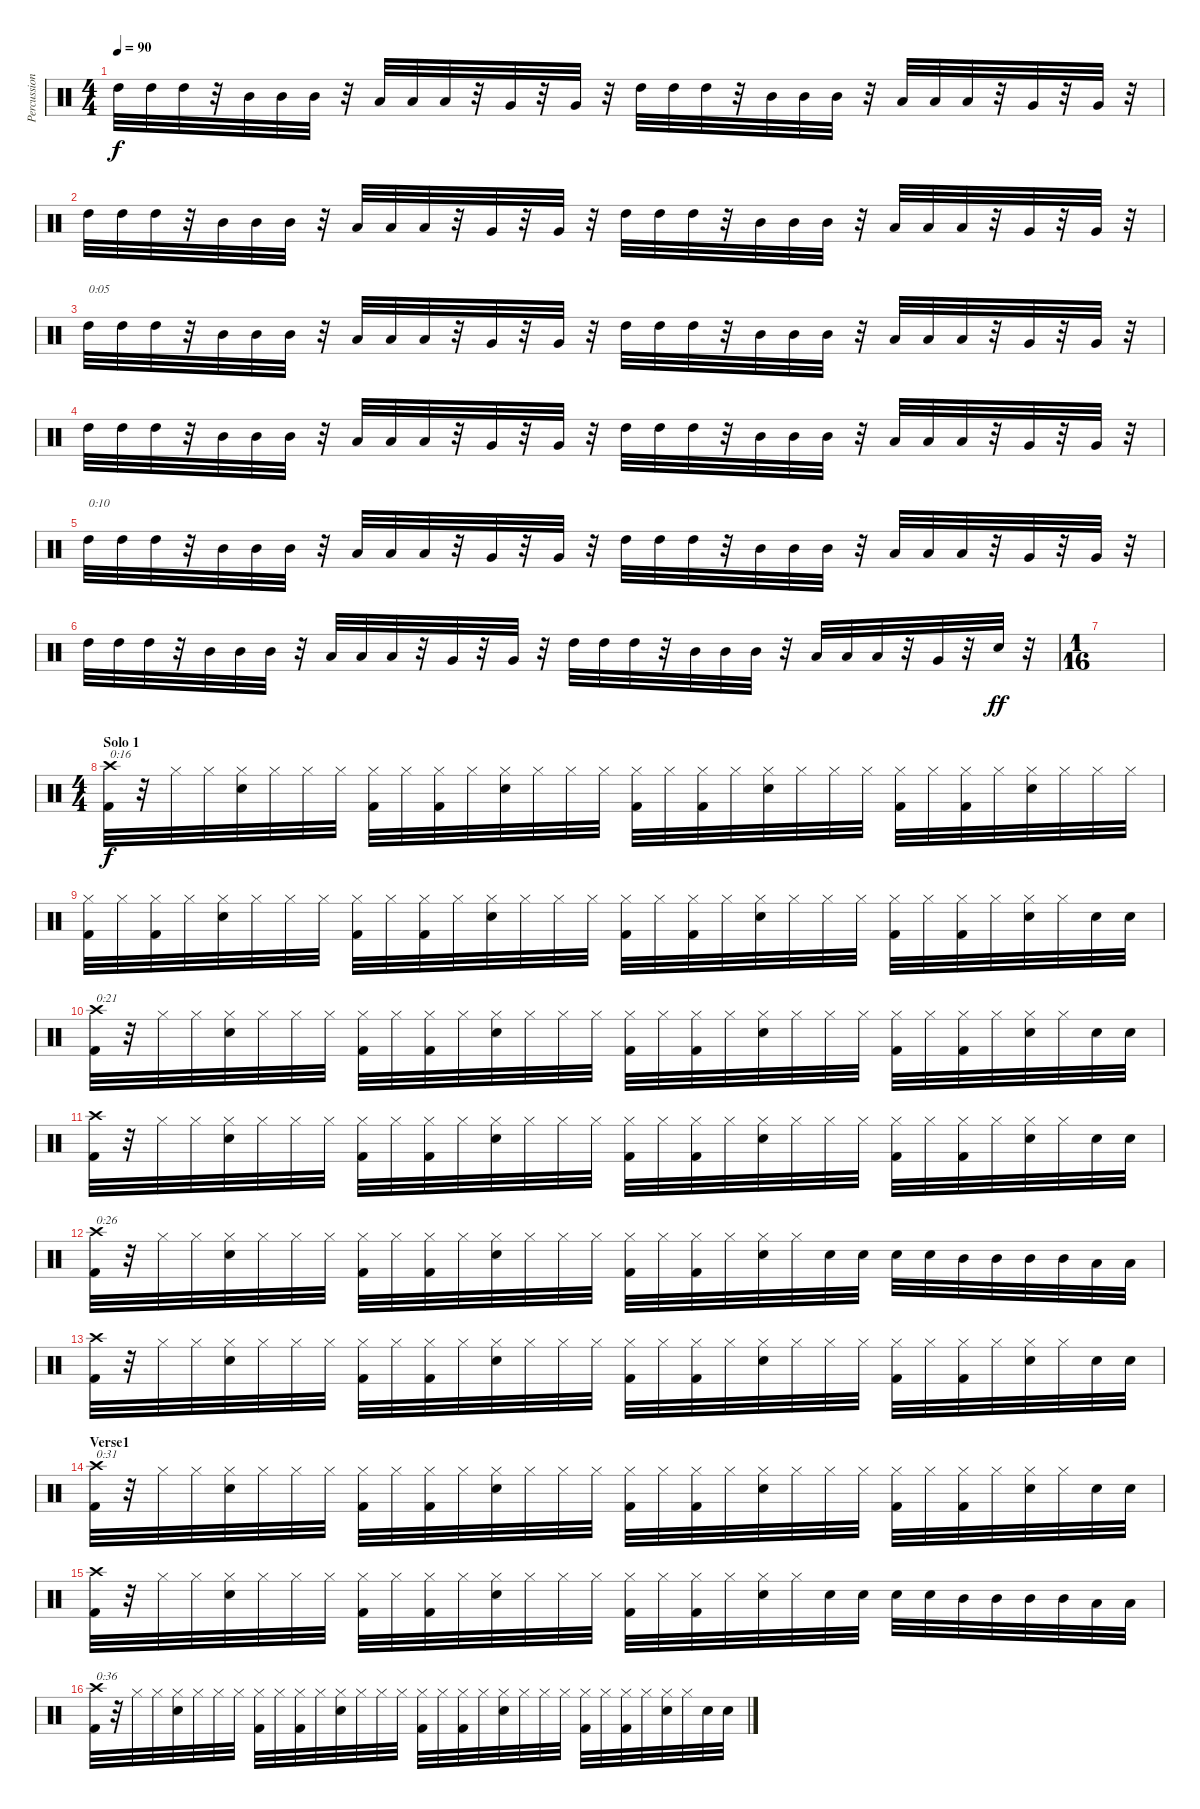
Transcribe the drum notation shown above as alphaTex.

\track ("Percussion" "Percussion") {instrument percussion}
\staff {score}
\articulation defaults
\ts (4 4)
\tempo 90
\clef neutral
\ks c "High Tom (hit)".32{dy f} "High Tom (hit)".32 "High Tom (hit)".32
r.32 "Mid Tom (hit)".32 "Mid Tom (hit)".32 "Mid Tom (hit)".32 r.32 "Low Tom (hit)".32 "Low Tom (hit)".32 "Low Tom (hit)".32 r.32 "Very Low Tom (hit)".32 r.32 "Very Low Tom (hit)".32 r.32 "High Tom (hit)".32 "High Tom (hit)".32 "High Tom (hit)".32 r.32 "Mid Tom (hit)".32 "Mid Tom (hit)".32 "Mid Tom (hit)".32 r.32 "Low Tom (hit)".32 "Low Tom (hit)".32 "Low Tom (hit)".32 r.32 "Very Low Tom (hit)".32 r.32 "Very Low Tom (hit)".32 r.32 |
"High Tom (hit)".32 "High Tom (hit)".32 "High Tom (hit)".32 r.32 "Mid Tom (hit)".32 "Mid Tom (hit)".32 "Mid Tom (hit)".32 r.32 "Low Tom (hit)".32 "Low Tom (hit)".32 "Low Tom (hit)".32 r.32 "Very Low Tom (hit)".32 r.32 "Very Low Tom (hit)".32 r.32 "High Tom (hit)".32 "High Tom (hit)".32 "High Tom (hit)".32 r.32 "Mid Tom (hit)".32 "Mid Tom (hit)".32 "Mid Tom (hit)".32 r.32 "Low Tom (hit)".32 "Low Tom (hit)".32 "Low Tom (hit)".32 r.32 "Very Low Tom (hit)".32 r.32 "Very Low Tom (hit)".32 r.32 |
"High Tom (hit)".32{txt "0:05"} "High Tom (hit)".32 "High Tom (hit)".32 r.32 "Mid Tom (hit)".32 "Mid Tom (hit)".32 "Mid Tom (hit)".32 r.32 "Low Tom (hit)".32 "Low Tom (hit)".32 "Low Tom (hit)".32 r.32 "Very Low Tom (hit)".32 r.32 "Very Low Tom (hit)".32 r.32 "High Tom (hit)".32 "High Tom (hit)".32 "High Tom (hit)".32 r.32 "Mid Tom (hit)".32 "Mid Tom (hit)".32 "Mid Tom (hit)".32 r.32 "Low Tom (hit)".32 "Low Tom (hit)".32 "Low Tom (hit)".32 r.32 "Very Low Tom (hit)".32 r.32 "Very Low Tom (hit)".32 r.32 |
"High Tom (hit)".32 "High Tom (hit)".32 "High Tom (hit)".32 r.32 "Mid Tom (hit)".32 "Mid Tom (hit)".32 "Mid Tom (hit)".32 r.32 "Low Tom (hit)".32 "Low Tom (hit)".32 "Low Tom (hit)".32 r.32 "Very Low Tom (hit)".32 r.32 "Very Low Tom (hit)".32 r.32 "High Tom (hit)".32 "High Tom (hit)".32 "High Tom (hit)".32 r.32 "Mid Tom (hit)".32 "Mid Tom (hit)".32 "Mid Tom (hit)".32 r.32 "Low Tom (hit)".32 "Low Tom (hit)".32 "Low Tom (hit)".32 r.32 "Very Low Tom (hit)".32 r.32 "Very Low Tom (hit)".32 r.32 |
"High Tom (hit)".32{txt "0:10"} "High Tom (hit)".32 "High Tom (hit)".32 r.32 "Mid Tom (hit)".32 "Mid Tom (hit)".32 "Mid Tom (hit)".32 r.32 "Low Tom (hit)".32 "Low Tom (hit)".32 "Low Tom (hit)".32 r.32 "Very Low Tom (hit)".32 r.32 "Very Low Tom (hit)".32 r.32 "High Tom (hit)".32 "High Tom (hit)".32 "High Tom (hit)".32 r.32 "Mid Tom (hit)".32 "Mid Tom (hit)".32 "Mid Tom (hit)".32 r.32 "Low Tom (hit)".32 "Low Tom (hit)".32 "Low Tom (hit)".32 r.32 "Very Low Tom (hit)".32 r.32 "Very Low Tom (hit)".32 r.32 |
"High Tom (hit)".32 "High Tom (hit)".32 "High Tom (hit)".32 r.32 "Mid Tom (hit)".32 "Mid Tom (hit)".32 "Mid Tom (hit)".32 r.32 "Low Tom (hit)".32 "Low Tom (hit)".32 "Low Tom (hit)".32 r.32 "Very Low Tom (hit)".32 r.32 "Very Low Tom (hit)".32 r.32 "High Tom (hit)".32 "High Tom (hit)".32 "High Tom (hit)".32 r.32 "Mid Tom (hit)".32 "Mid Tom (hit)".32 "Mid Tom (hit)".32 r.32 "Low Tom (hit)".32 "Low Tom (hit)".32 "Low Tom (hit)".32 r.32 "Very Low Tom (hit)".32 r.32 "Snare (hit) 2".32{dy ff} r.32 |
\ts (1 16)
|
\ts (4 4)
\section ("" "Solo 1")
("Crash high (hit)" "Kick (hit) 2").32{txt "0:16" dy f} r.32 "Hi-Hat (closed)".32 "Hi-Hat (closed)".32 ("Hi-Hat (closed)" "Snare (hit) 2").32 "Hi-Hat (closed)".32 "Hi-Hat (closed)".32 "Hi-Hat (closed)".32 ("Hi-Hat (closed)" "Kick (hit) 2").32 "Hi-Hat (closed)".32 ("Hi-Hat (closed)" "Kick (hit) 2").32 "Hi-Hat (closed)".32 ("Hi-Hat (closed)" "Snare (hit) 2").32 "Hi-Hat (closed)".32 "Hi-Hat (closed)".32 "Hi-Hat (closed)".32 ("Hi-Hat (closed)" "Kick (hit) 2").32 "Hi-Hat (closed)".32 ("Hi-Hat (closed)" "Kick (hit) 2").32 "Hi-Hat (closed)".32 ("Hi-Hat (closed)" "Snare (hit) 2").32 "Hi-Hat (closed)".32 "Hi-Hat (closed)".32 "Hi-Hat (closed)".32 ("Hi-Hat (closed)" "Kick (hit) 2").32 "Hi-Hat (closed)".32 ("Hi-Hat (closed)" "Kick (hit) 2").32 "Hi-Hat (closed)".32 ("Hi-Hat (closed)" "Snare (hit) 2").32 "Hi-Hat (closed)".32 "Hi-Hat (closed)".32 "Hi-Hat (closed)".32 |
("Hi-Hat (closed)" "Kick (hit) 2").32 "Hi-Hat (closed)".32 ("Hi-Hat (closed)" "Kick (hit) 2").32 "Hi-Hat (closed)".32 ("Hi-Hat (closed)" "Snare (hit) 2").32 "Hi-Hat (closed)".32 "Hi-Hat (closed)".32 "Hi-Hat (closed)".32 ("Hi-Hat (closed)" "Kick (hit) 2").32 "Hi-Hat (closed)".32 ("Hi-Hat (closed)" "Kick (hit) 2").32 "Hi-Hat (closed)".32 ("Hi-Hat (closed)" "Snare (hit) 2").32 "Hi-Hat (closed)".32 "Hi-Hat (closed)".32 "Hi-Hat (closed)".32 ("Hi-Hat (closed)" "Kick (hit) 2").32 "Hi-Hat (closed)".32 ("Hi-Hat (closed)" "Kick (hit) 2").32 "Hi-Hat (closed)".32 ("Hi-Hat (closed)" "Snare (hit) 2").32 "Hi-Hat (closed)".32 "Hi-Hat (closed)".32 "Hi-Hat (closed)".32 ("Hi-Hat (closed)" "Kick (hit) 2").32 "Hi-Hat (closed)".32 ("Hi-Hat (closed)" "Kick (hit) 2").32 "Hi-Hat (closed)".32 ("Hi-Hat (closed)" "Snare (hit) 2").32 "Hi-Hat (closed)".32 "Snare (hit) 2".32 "Snare (hit) 2".32 |
("Crash high (hit)" "Kick (hit) 2").32{txt "0:21"} r.32 "Hi-Hat (closed)".32 "Hi-Hat (closed)".32 ("Hi-Hat (closed)" "Snare (hit) 2").32 "Hi-Hat (closed)".32 "Hi-Hat (closed)".32 "Hi-Hat (closed)".32 ("Hi-Hat (closed)" "Kick (hit) 2").32 "Hi-Hat (closed)".32 ("Hi-Hat (closed)" "Kick (hit) 2").32 "Hi-Hat (closed)".32 ("Hi-Hat (closed)" "Snare (hit) 2").32 "Hi-Hat (closed)".32 "Hi-Hat (closed)".32 "Hi-Hat (closed)".32 ("Hi-Hat (closed)" "Kick (hit) 2").32 "Hi-Hat (closed)".32 ("Hi-Hat (closed)" "Kick (hit) 2").32 "Hi-Hat (closed)".32 ("Hi-Hat (closed)" "Snare (hit) 2").32 "Hi-Hat (closed)".32 "Hi-Hat (closed)".32 "Hi-Hat (closed)".32 ("Hi-Hat (closed)" "Kick (hit) 2").32 "Hi-Hat (closed)".32 ("Hi-Hat (closed)" "Kick (hit) 2").32 "Hi-Hat (closed)".32 ("Hi-Hat (closed)" "Snare (hit) 2").32 "Hi-Hat (closed)".32 "Snare (hit) 2".32 "Snare (hit) 2".32 |
("Crash high (hit)" "Kick (hit) 2").32 r.32 "Hi-Hat (closed)".32 "Hi-Hat (closed)".32 ("Hi-Hat (closed)" "Snare (hit) 2").32 "Hi-Hat (closed)".32 "Hi-Hat (closed)".32 "Hi-Hat (closed)".32 ("Hi-Hat (closed)" "Kick (hit) 2").32 "Hi-Hat (closed)".32 ("Hi-Hat (closed)" "Kick (hit) 2").32 "Hi-Hat (closed)".32 ("Hi-Hat (closed)" "Snare (hit) 2").32 "Hi-Hat (closed)".32 "Hi-Hat (closed)".32 "Hi-Hat (closed)".32 ("Hi-Hat (closed)" "Kick (hit) 2").32 "Hi-Hat (closed)".32 ("Hi-Hat (closed)" "Kick (hit) 2").32 "Hi-Hat (closed)".32 ("Hi-Hat (closed)" "Snare (hit) 2").32 "Hi-Hat (closed)".32 "Hi-Hat (closed)".32 "Hi-Hat (closed)".32 ("Hi-Hat (closed)" "Kick (hit) 2").32 "Hi-Hat (closed)".32 ("Hi-Hat (closed)" "Kick (hit) 2").32 "Hi-Hat (closed)".32 ("Hi-Hat (closed)" "Snare (hit) 2").32 "Hi-Hat (closed)".32 "Snare (hit) 2".32 "Snare (hit) 2".32 |
("Crash high (hit)" "Kick (hit) 2").32{txt "0:26"} r.32 "Hi-Hat (closed)".32 "Hi-Hat (closed)".32 ("Hi-Hat (closed)" "Snare (hit) 2").32 "Hi-Hat (closed)".32 "Hi-Hat (closed)".32 "Hi-Hat (closed)".32 ("Hi-Hat (closed)" "Kick (hit) 2").32 "Hi-Hat (closed)".32 ("Hi-Hat (closed)" "Kick (hit) 2").32 "Hi-Hat (closed)".32 ("Hi-Hat (closed)" "Snare (hit) 2").32 "Hi-Hat (closed)".32 "Hi-Hat (closed)".32 "Hi-Hat (closed)".32 ("Hi-Hat (closed)" "Kick (hit) 2").32 "Hi-Hat (closed)".32 ("Hi-Hat (closed)" "Kick (hit) 2").32 "Hi-Hat (closed)".32 ("Hi-Hat (closed)" "Snare (hit) 2").32 "Hi-Hat (closed)".32 "Snare (hit) 2".32 "Snare (hit) 2".32 "Snare (hit) 2".32 "Snare (hit) 2".32 "Mid Tom (hit)".32 "Mid Tom (hit)".32 "Mid Tom (hit)".32 "Mid Tom (hit)".32 "Low Tom (hit)".32 "Low Tom (hit)".32 |
("Crash high (hit)" "Kick (hit) 2").32 r.32 "Hi-Hat (closed)".32 "Hi-Hat (closed)".32 ("Hi-Hat (closed)" "Snare (hit) 2").32 "Hi-Hat (closed)".32 "Hi-Hat (closed)".32 "Hi-Hat (closed)".32 ("Hi-Hat (closed)" "Kick (hit) 2").32 "Hi-Hat (closed)".32 ("Hi-Hat (closed)" "Kick (hit) 2").32 "Hi-Hat (closed)".32 ("Hi-Hat (closed)" "Snare (hit) 2").32 "Hi-Hat (closed)".32 "Hi-Hat (closed)".32 "Hi-Hat (closed)".32 ("Hi-Hat (closed)" "Kick (hit) 2").32 "Hi-Hat (closed)".32 ("Hi-Hat (closed)" "Kick (hit) 2").32 "Hi-Hat (closed)".32 ("Hi-Hat (closed)" "Snare (hit) 2").32 "Hi-Hat (closed)".32 "Hi-Hat (closed)".32 "Hi-Hat (closed)".32 ("Hi-Hat (closed)" "Kick (hit) 2").32 "Hi-Hat (closed)".32 ("Hi-Hat (closed)" "Kick (hit) 2").32 "Hi-Hat (closed)".32 ("Hi-Hat (closed)" "Snare (hit) 2").32 "Hi-Hat (closed)".32 "Snare (hit) 2".32 "Snare (hit) 2".32 |
\section ("" "Verse1")
("Crash high (hit)" "Kick (hit) 2").32{txt "0:31"} r.32 "Hi-Hat (closed)".32 "Hi-Hat (closed)".32 ("Hi-Hat (closed)" "Snare (hit) 2").32 "Hi-Hat (closed)".32 "Hi-Hat (closed)".32 "Hi-Hat (closed)".32 ("Hi-Hat (closed)" "Kick (hit) 2").32 "Hi-Hat (closed)".32 ("Hi-Hat (closed)" "Kick (hit) 2").32 "Hi-Hat (closed)".32 ("Hi-Hat (closed)" "Snare (hit) 2").32 "Hi-Hat (closed)".32 "Hi-Hat (closed)".32 "Hi-Hat (closed)".32 ("Hi-Hat (closed)" "Kick (hit) 2").32 "Hi-Hat (closed)".32 ("Hi-Hat (closed)" "Kick (hit) 2").32 "Hi-Hat (closed)".32 ("Hi-Hat (closed)" "Snare (hit) 2").32 "Hi-Hat (closed)".32 "Hi-Hat (closed)".32 "Hi-Hat (closed)".32 ("Hi-Hat (closed)" "Kick (hit) 2").32 "Hi-Hat (closed)".32 ("Hi-Hat (closed)" "Kick (hit) 2").32 "Hi-Hat (closed)".32 ("Hi-Hat (closed)" "Snare (hit) 2").32 "Hi-Hat (closed)".32 "Snare (hit) 2".32 "Snare (hit) 2".32 |
("Crash high (hit)" "Kick (hit) 2").32 r.32 "Hi-Hat (closed)".32 "Hi-Hat (closed)".32 ("Hi-Hat (closed)" "Snare (hit) 2").32 "Hi-Hat (closed)".32 "Hi-Hat (closed)".32 "Hi-Hat (closed)".32 ("Hi-Hat (closed)" "Kick (hit) 2").32 "Hi-Hat (closed)".32 ("Hi-Hat (closed)" "Kick (hit) 2").32 "Hi-Hat (closed)".32 ("Hi-Hat (closed)" "Snare (hit) 2").32 "Hi-Hat (closed)".32 "Hi-Hat (closed)".32 "Hi-Hat (closed)".32 ("Hi-Hat (closed)" "Kick (hit) 2").32 "Hi-Hat (closed)".32 ("Hi-Hat (closed)" "Kick (hit) 2").32 "Hi-Hat (closed)".32 ("Hi-Hat (closed)" "Snare (hit) 2").32 "Hi-Hat (closed)".32 "Snare (hit) 2".32 "Snare (hit) 2".32 "Snare (hit) 2".32 "Snare (hit) 2".32 "Mid Tom (hit)".32 "Mid Tom (hit)".32 "Mid Tom (hit)".32 "Mid Tom (hit)".32 "Low Tom (hit)".32 "Low Tom (hit)".32 |
("Crash high (hit)" "Kick (hit) 2").32{txt "0:36"} r.32 "Hi-Hat (closed)".32 "Hi-Hat (closed)".32 ("Hi-Hat (closed)" "Snare (hit) 2").32 "Hi-Hat (closed)".32 "Hi-Hat (closed)".32 "Hi-Hat (closed)".32 ("Hi-Hat (closed)" "Kick (hit) 2").32 "Hi-Hat (closed)".32 ("Hi-Hat (closed)" "Kick (hit) 2").32 "Hi-Hat (closed)".32 ("Hi-Hat (closed)" "Snare (hit) 2").32 "Hi-Hat (closed)".32 "Hi-Hat (closed)".32 "Hi-Hat (closed)".32 ("Hi-Hat (closed)" "Kick (hit) 2").32 "Hi-Hat (closed)".32 ("Hi-Hat (closed)" "Kick (hit) 2").32 "Hi-Hat (closed)".32 ("Hi-Hat (closed)" "Snare (hit) 2").32 "Hi-Hat (closed)".32 "Hi-Hat (closed)".32 "Hi-Hat (closed)".32 ("Hi-Hat (closed)" "Kick (hit) 2").32 "Hi-Hat (closed)".32 ("Hi-Hat (closed)" "Kick (hit) 2").32 "Hi-Hat (closed)".32 ("Hi-Hat (closed)" "Snare (hit) 2").32 "Hi-Hat (closed)".32 "Snare (hit) 2".32 "Snare (hit) 2".32
